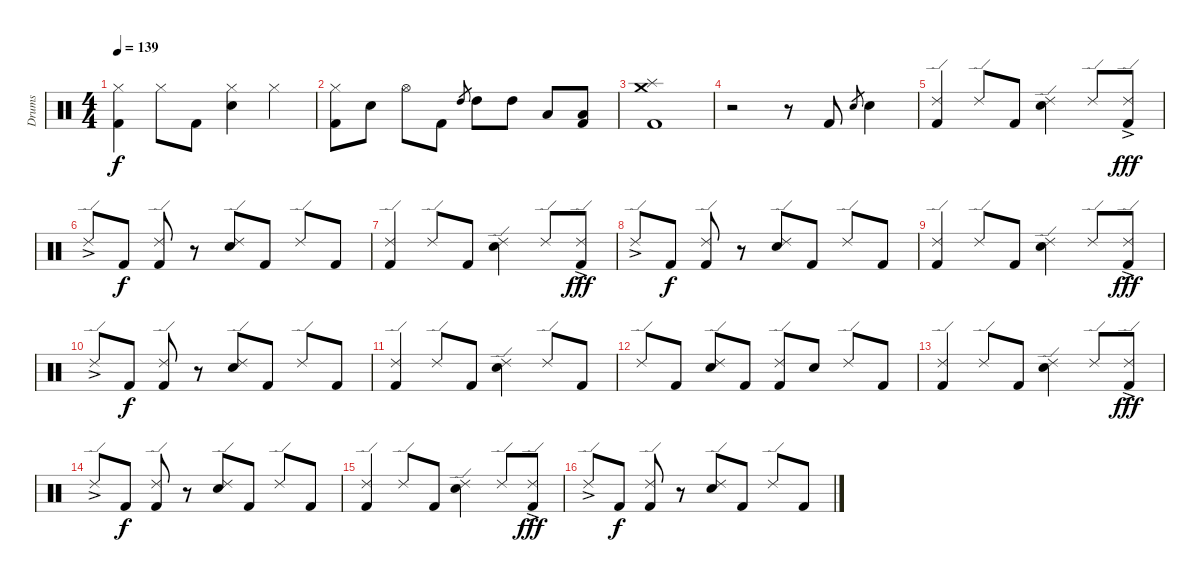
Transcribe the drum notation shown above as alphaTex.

\track ("Drums" "Drums") {instrument percussion}
\staff {score}
\articulation defaults
\ts (4 4)
\tempo 139
\clef neutral
\ks c
("Hi-Hat (closed)" "Kick (hit) 2").4{dy f} "Hi-Hat (closed)".8 "Kick (hit) 2".8 ("Hi-Hat (closed)" "Electric Snare (hit)").4 "Hi-Hat (closed)".4 |
("Hi-Hat (closed)" "Kick (hit) 2").8 "Electric Snare (hit)".8 "Hi-Hat (open)".8 "Kick (hit) 2".8 "High Tom (hit)".8{gr} "High Tom (hit)".8 "High Tom (hit)".8 "Low Tom (hit)".8 ("Low Floor Tom (hit)" "Kick (hit) 2").8 |
("Crash medium (hit)" "Splash (hit)" "Kick (hit) 2").1 |
r.2 r.8 "Kick (hit) 2".8 "Electric Snare (hit)".8{gr} "Electric Snare (hit)".4 |
("Ride (edge) 2" "Kick (hit) 2").4 "Ride (edge) 2".8 "Kick (hit) 2".8 ("Ride (edge) 2" "Electric Snare (hit)").4 "Ride (edge) 2".8 ("Ride (edge) 2"{ac} "Kick (hit) 2").8{dy fff} |
"Ride (edge) 2"{ac}.8 "Kick (hit) 2".8{dy f} ("Ride (edge) 2" "Kick (hit) 2").8 r.8 ("Ride (edge) 2" "Electric Snare (hit)").8 "Kick (hit) 2".8 "Ride (edge) 2".8 "Kick (hit) 2".8 |
("Ride (edge) 2" "Kick (hit) 2").4 "Ride (edge) 2".8 "Kick (hit) 2".8 ("Ride (edge) 2" "Electric Snare (hit)").4 "Ride (edge) 2".8 ("Ride (edge) 2"{ac} "Kick (hit) 2").8{dy fff} |
"Ride (edge) 2"{ac}.8 "Kick (hit) 2".8{dy f} ("Ride (edge) 2" "Kick (hit) 2").8 r.8 ("Ride (edge) 2" "Electric Snare (hit)").8 "Kick (hit) 2".8 "Ride (edge) 2".8 "Kick (hit) 2".8 |
("Ride (edge) 2" "Kick (hit) 2").4 "Ride (edge) 2".8 "Kick (hit) 2".8 ("Ride (edge) 2" "Electric Snare (hit)").4 "Ride (edge) 2".8 ("Ride (edge) 2"{ac} "Kick (hit) 2").8{dy fff} |
"Ride (edge) 2"{ac}.8 "Kick (hit) 2".8{dy f} ("Ride (edge) 2" "Kick (hit) 2").8 r.8 ("Ride (edge) 2" "Electric Snare (hit)").8 "Kick (hit) 2".8 "Ride (edge) 2".8 "Kick (hit) 2".8 |
("Ride (edge) 2" "Kick (hit) 2").4 "Ride (edge) 2".8 "Kick (hit) 2".8 ("Ride (edge) 2" "Electric Snare (hit)").4 "Ride (edge) 2".8 "Kick (hit) 2".8 |
"Ride (edge) 2".8 "Kick (hit) 2".8 ("Ride (edge) 2" "Electric Snare (hit)").8 "Kick (hit) 2".8 ("Ride (edge) 2" "Kick (hit) 2").8 "Electric Snare (hit)".8 "Ride (edge) 2".8 "Kick (hit) 2".8 |
("Ride (edge) 2" "Kick (hit) 2").4 "Ride (edge) 2".8 "Kick (hit) 2".8 ("Ride (edge) 2" "Electric Snare (hit)").4 "Ride (edge) 2".8 ("Ride (edge) 2"{ac} "Kick (hit) 2").8{dy fff} |
"Ride (edge) 2"{ac}.8 "Kick (hit) 2".8{dy f} ("Ride (edge) 2" "Kick (hit) 2").8 r.8 ("Ride (edge) 2" "Electric Snare (hit)").8 "Kick (hit) 2".8 "Ride (edge) 2".8 "Kick (hit) 2".8 |
("Ride (edge) 2" "Kick (hit) 2").4 "Ride (edge) 2".8 "Kick (hit) 2".8 ("Ride (edge) 2" "Electric Snare (hit)").4 "Ride (edge) 2".8 ("Ride (edge) 2"{ac} "Kick (hit) 2").8{dy fff} |
"Ride (edge) 2"{ac}.8 "Kick (hit) 2".8{dy f} ("Ride (edge) 2" "Kick (hit) 2").8 r.8 ("Ride (edge) 2" "Electric Snare (hit)").8 "Kick (hit) 2".8 "Ride (edge) 2".8 "Kick (hit) 2".8
